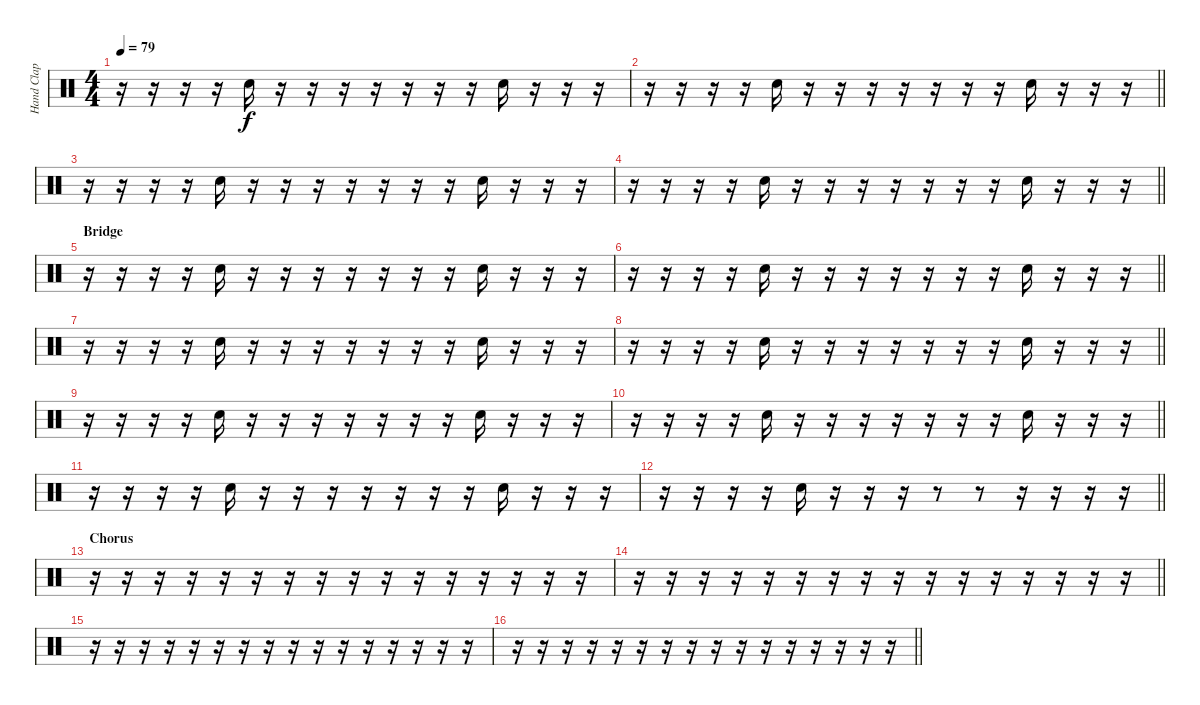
\track ("Hand Clap" "Hand Clap") {instrument percussion}
\staff {score}
\articulation defaults
\ts (4 4)
\tempo 79
\clef neutral
\ks c
r.16{dy f} r.16 r.16 r.16 "Hand Clap (hit)".16 r.16 r.16 r.16 r.16 r.16 r.16 r.16 "Hand Clap (hit)".16 r.16 r.16 r.16 |
\barLineRight lightlight
r.16 r.16 r.16 r.16 "Hand Clap (hit)".16 r.16 r.16 r.16 r.16 r.16 r.16 r.16 "Hand Clap (hit)".16 r.16 r.16 r.16 |
r.16 r.16 r.16 r.16 "Hand Clap (hit)".16 r.16 r.16 r.16 r.16 r.16 r.16 r.16 "Hand Clap (hit)".16 r.16 r.16 r.16 |
\barLineRight lightlight
r.16 r.16 r.16 r.16 "Hand Clap (hit)".16 r.16 r.16 r.16 r.16 r.16 r.16 r.16 "Hand Clap (hit)".16 r.16 r.16 r.16 |
\section ("" "Bridge")
r.16 r.16 r.16 r.16 "Hand Clap (hit)".16 r.16 r.16 r.16 r.16 r.16 r.16 r.16 "Hand Clap (hit)".16 r.16 r.16 r.16 |
\barLineRight lightlight
r.16 r.16 r.16 r.16 "Hand Clap (hit)".16 r.16 r.16 r.16 r.16 r.16 r.16 r.16 "Hand Clap (hit)".16 r.16 r.16 r.16 |
r.16 r.16 r.16 r.16 "Hand Clap (hit)".16 r.16 r.16 r.16 r.16 r.16 r.16 r.16 "Hand Clap (hit)".16 r.16 r.16 r.16 |
\barLineRight lightlight
r.16 r.16 r.16 r.16 "Hand Clap (hit)".16 r.16 r.16 r.16 r.16 r.16 r.16 r.16 "Hand Clap (hit)".16 r.16 r.16 r.16 |
r.16 r.16 r.16 r.16 "Hand Clap (hit)".16 r.16 r.16 r.16 r.16 r.16 r.16 r.16 "Hand Clap (hit)".16 r.16 r.16 r.16 |
\barLineRight lightlight
r.16 r.16 r.16 r.16 "Hand Clap (hit)".16 r.16 r.16 r.16 r.16 r.16 r.16 r.16 "Hand Clap (hit)".16 r.16 r.16 r.16 |
r.16 r.16 r.16 r.16 "Hand Clap (hit)".16 r.16 r.16 r.16 r.16 r.16 r.16 r.16 "Hand Clap (hit)".16 r.16 r.16 r.16 |
\barLineRight lightlight
r.16 r.16 r.16 r.16 "Hand Clap (hit)".16 r.16 r.16 r.16 r.8 r.8 r.16 r.16 r.16 r.16 |
\section ("" "Chorus")
r.16 r.16 r.16 r.16 r.16 r.16 r.16 r.16 r.16 r.16 r.16 r.16 r.16 r.16 r.16 r.16 |
\barLineRight lightlight
r.16 r.16 r.16 r.16 r.16 r.16 r.16 r.16 r.16 r.16 r.16 r.16 r.16 r.16 r.16 r.16 |
r.16 r.16 r.16 r.16 r.16 r.16 r.16 r.16 r.16 r.16 r.16 r.16 r.16 r.16 r.16 r.16 |
\barLineRight lightlight
r.16 r.16 r.16 r.16 r.16 r.16 r.16 r.16 r.16 r.16 r.16 r.16 r.16 r.16 r.16 r.16
